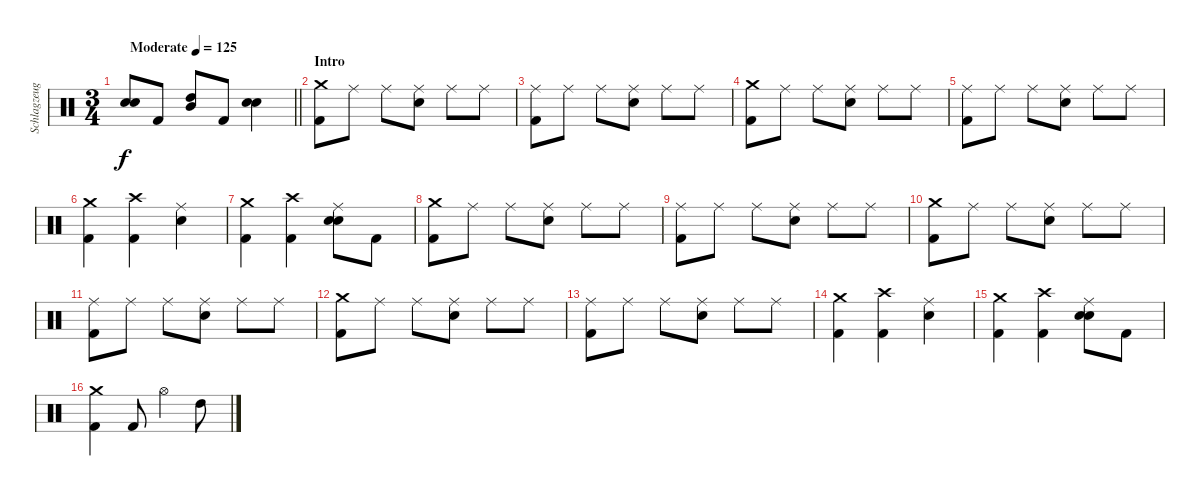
\track ("Schlagzeug" "Schlagzeug") {instrument percussion}
\staff {score}
\articulation defaults
\ts (3 4)
\tempo (125 "Moderate")
\clef neutral
\barLineRight lightlight
\ks c
("Snare (hit) 2" "Snare (hit) 2").8{bd 480 dy f} "Kick (hit) 2".8 ("Mid Tom (hit)" "High Tom (hit)").8{bd 480} "Kick (hit) 2".8 ("Snare (hit) 2" "Snare (hit) 2").4 |
\section ("" "Intro")
("Crash medium (hit)" "Kick (hit) 2").8 "Ride (middle)".8 "Ride (middle)".8 ("Ride (middle)" "Snare (hit) 2").8 "Ride (middle)".8 "Ride (middle)".8 |
("Ride (middle)" "Kick (hit) 2").8 "Ride (middle)".8 "Ride (middle)".8 ("Ride (middle)" "Snare (hit) 2").8 "Ride (middle)".8 "Ride (middle)".8 |
("Crash medium (hit)" "Kick (hit) 2").8 "Ride (middle)".8 "Ride (middle)".8 ("Ride (middle)" "Snare (hit) 2").8 "Ride (middle)".8 "Ride (middle)".8 |
("Ride (middle)" "Kick (hit) 2").8 "Ride (middle)".8 "Ride (middle)".8 ("Ride (middle)" "Snare (hit) 2").8 "Ride (middle)".8 "Ride (middle)".8 |
("Crash medium (hit)" "Kick (hit) 2").4 ("Crash high (hit)" "Kick (hit) 2").4 ("Ride (middle)" "Snare (hit) 2").4 |
("Crash medium (hit)" "Kick (hit) 2").4 ("Crash high (hit)" "Kick (hit) 2").4 ("Ride (middle)" "Snare (hit) 2" "Snare (hit) 2").8{bd 480} "Kick (hit) 2".8 |
("Crash medium (hit)" "Kick (hit) 2").8 "Ride (middle)".8 "Ride (middle)".8 ("Ride (middle)" "Snare (hit) 2").8 "Ride (middle)".8 "Ride (middle)".8 |
("Ride (middle)" "Kick (hit) 2").8 "Ride (middle)".8 "Ride (middle)".8 ("Ride (middle)" "Snare (hit) 2").8 "Ride (middle)".8 "Ride (middle)".8 |
("Crash medium (hit)" "Kick (hit) 2").8 "Ride (middle)".8 "Ride (middle)".8 ("Ride (middle)" "Snare (hit) 2").8 "Ride (middle)".8 "Ride (middle)".8 |
("Ride (middle)" "Kick (hit) 2").8 "Ride (middle)".8 "Ride (middle)".8 ("Ride (middle)" "Snare (hit) 2").8 "Ride (middle)".8 "Ride (middle)".8 |
("Crash medium (hit)" "Kick (hit) 2").8 "Ride (middle)".8 "Ride (middle)".8 ("Ride (middle)" "Snare (hit) 2").8 "Ride (middle)".8 "Ride (middle)".8 |
("Ride (middle)" "Kick (hit) 2").8 "Ride (middle)".8 "Ride (middle)".8 ("Ride (middle)" "Snare (hit) 2").8 "Ride (middle)".8 "Ride (middle)".8 |
("Crash medium (hit)" "Kick (hit) 2").4 ("Crash high (hit)" "Kick (hit) 2").4 ("Ride (middle)" "Snare (hit) 2").4 |
("Crash medium (hit)" "Kick (hit) 2").4 ("Crash high (hit)" "Kick (hit) 2").4 ("Ride (middle)" "Snare (hit) 2" "Snare (hit) 2").8{bd 480} "Kick (hit) 2".8 |
("Crash medium (hit)" "Kick (hit) 2").4 "Kick (hit) 2".8 "Hi-Hat (open)".4 "High Tom (hit)".8
